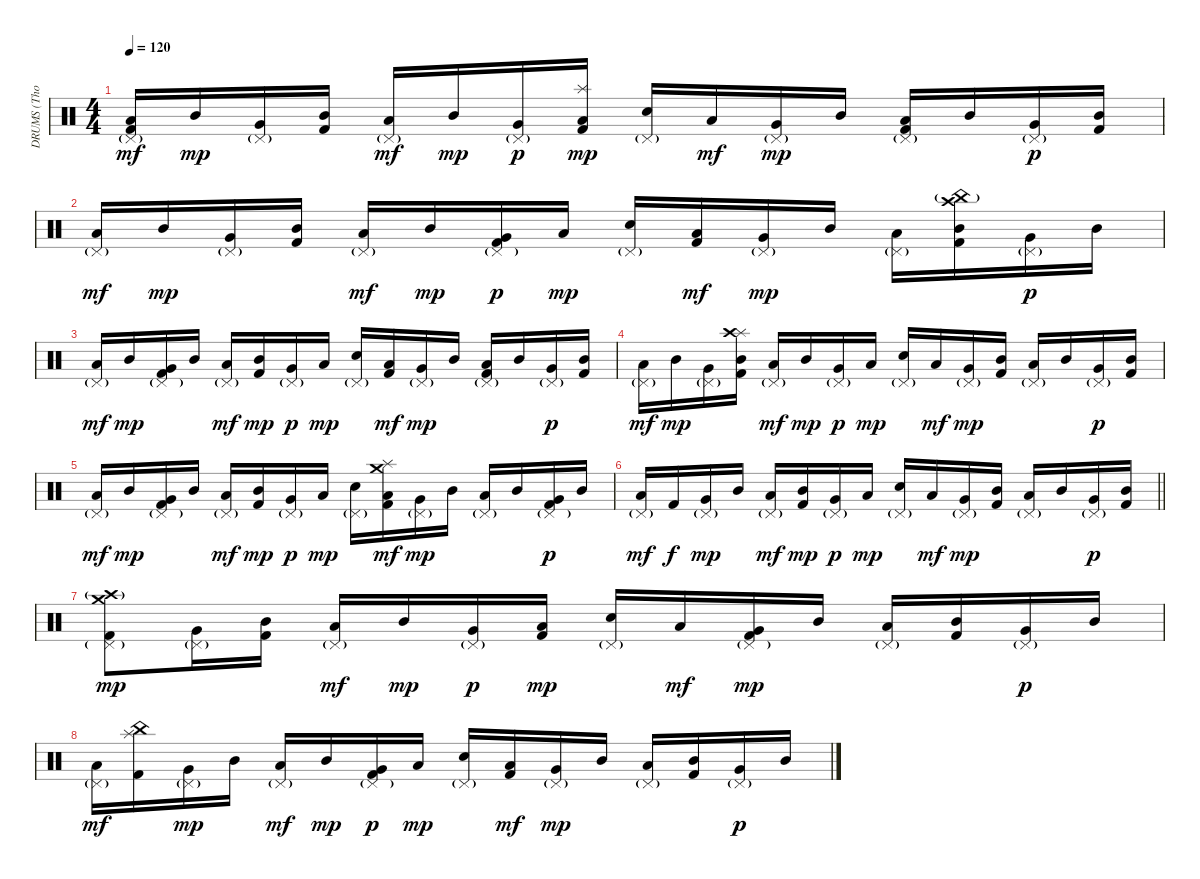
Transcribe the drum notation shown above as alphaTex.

\track ("DRUMS (Thomas Haake)" "DRUMS (Tho") {instrument percussion}
\staff {score}
\articulation defaults
\ts (4 4)
\tempo 120
\clef neutral
\ks c
("Pedal Hi-Hat (hit)"{g} "Low Floor Tom (hit)" "Kick (hit) 2").16{dy mf} "Mid Tom (hit)".16{dy mp} ("Pedal Hi-Hat (hit)"{g} "Very Low Tom (hit)").16 ("Mid Tom (hit)" "Kick (hit) 2").16 ("Pedal Hi-Hat (hit)"{g} "Low Floor Tom (hit)").16{dy mf} "Mid Tom (hit)".16{dy mp} ("Pedal Hi-Hat (hit)"{g} "Very Low Tom (hit)").16{dy p} ("Splash (hit)" "Low Tom (hit)" "Kick (hit) 2").16{dy mp} ("Pedal Hi-Hat (hit)"{g} "Electric Snare (hit)").16 "Low Tom (hit)".16{dy mf} ("Pedal Hi-Hat (hit)"{g} "Very Low Tom (hit)").16{dy mp} "Mid Tom (hit)".16 ("Pedal Hi-Hat (hit)"{g} "Low Floor Tom (hit)" "Kick (hit) 2").16 "Mid Tom (hit)".16 ("Pedal Hi-Hat (hit)"{g} "Very Low Tom (hit)").16{dy p} ("Mid Tom (hit)" "Kick (hit) 2").16 |
("Pedal Hi-Hat (hit)"{g} "Low Floor Tom (hit)").16{dy mf} "Mid Tom (hit)".16{dy mp} ("Pedal Hi-Hat (hit)"{g} "Very Low Tom (hit)").16 ("Mid Tom (hit)" "Kick (hit) 2").16 ("Pedal Hi-Hat (hit)"{g} "Low Floor Tom (hit)").16{dy mf} "Mid Tom (hit)".16{dy mp} ("Pedal Hi-Hat (hit)"{g} "Very Low Tom (hit)" "Kick (hit) 2").16{dy p} "Low Tom (hit)".16{dy mp} ("Pedal Hi-Hat (hit)"{g} "Electric Snare (hit)").16 ("Low Tom (hit)" "Kick (hit) 2").16{dy mf} ("Pedal Hi-Hat (hit)"{g} "Very Low Tom (hit)").16{dy mp} "Mid Tom (hit)".16 ("Pedal Hi-Hat (hit)"{g} "Low Floor Tom (hit)").16 ("China (hit)"{g} "Crash high (hit)" "Mid Tom (hit)" "Kick (hit) 2").16 ("Pedal Hi-Hat (hit)"{g} "Very Low Tom (hit)").16{dy p} "Mid Tom (hit)".16 |
("Pedal Hi-Hat (hit)"{g} "Low Floor Tom (hit)").16{dy mf} "Mid Tom (hit)".16{dy mp} ("Pedal Hi-Hat (hit)"{g} "Very Low Tom (hit)" "Kick (hit) 2").16 "Mid Tom (hit)".16 ("Pedal Hi-Hat (hit)"{g} "Low Floor Tom (hit)").16{dy mf} ("Mid Tom (hit)" "Kick (hit) 2").16{dy mp} ("Pedal Hi-Hat (hit)"{g} "Very Low Tom (hit)").16{dy p} "Low Tom (hit)".16{dy mp} ("Pedal Hi-Hat (hit)"{g} "Electric Snare (hit)").16 ("Low Tom (hit)" "Kick (hit) 2").16{dy mf} ("Pedal Hi-Hat (hit)"{g} "Very Low Tom (hit)").16{dy mp} "Mid Tom (hit)".16 ("Pedal Hi-Hat (hit)"{g} "Low Floor Tom (hit)" "Kick (hit) 2").16 "Mid Tom (hit)".16 ("Pedal Hi-Hat (hit)"{g} "Very Low Tom (hit)").16{dy p} ("Mid Tom (hit)" "Kick (hit) 2").16 |
("Pedal Hi-Hat (hit)"{g} "Low Floor Tom (hit)").16{dy mf} "Mid Tom (hit)".16{dy mp} ("Pedal Hi-Hat (hit)"{g} "Very Low Tom (hit)").16 ("Splash (hit)" "Crash high (hit)" "Mid Tom (hit)" "Kick (hit) 2").16 ("Pedal Hi-Hat (hit)"{g} "Low Floor Tom (hit)").16{dy mf} "Mid Tom (hit)".16{dy mp} ("Pedal Hi-Hat (hit)"{g} "Very Low Tom (hit)").16{dy p} "Low Tom (hit)".16{dy mp} ("Pedal Hi-Hat (hit)"{g} "Electric Snare (hit)").16 "Low Tom (hit)".16{dy mf} ("Pedal Hi-Hat (hit)"{g} "Very Low Tom (hit)").16{dy mp} ("Mid Tom (hit)" "Kick (hit) 2").16 ("Pedal Hi-Hat (hit)"{g} "Low Floor Tom (hit)").16 "Mid Tom (hit)".16 ("Pedal Hi-Hat (hit)"{g} "Very Low Tom (hit)").16{dy p} ("Mid Tom (hit)" "Kick (hit) 2").16 |
("Pedal Hi-Hat (hit)"{g} "Low Floor Tom (hit)").16{dy mf} "Mid Tom (hit)".16{dy mp} ("Pedal Hi-Hat (hit)"{g} "Very Low Tom (hit)" "Kick (hit) 2").16 "Mid Tom (hit)".16 ("Pedal Hi-Hat (hit)"{g} "Low Floor Tom (hit)").16{dy mf} ("Mid Tom (hit)" "Kick (hit) 2").16{dy mp} ("Pedal Hi-Hat (hit)"{g} "Very Low Tom (hit)").16{dy p} "Low Tom (hit)".16{dy mp} ("Pedal Hi-Hat (hit)"{g} "Electric Snare (hit)").16 ("Crash medium (hit)" "Splash (hit)" "Low Tom (hit)" "Kick (hit) 2").16{dy mf} ("Pedal Hi-Hat (hit)"{g} "Very Low Tom (hit)").16{dy mp} "Mid Tom (hit)".16 ("Pedal Hi-Hat (hit)"{g} "Low Floor Tom (hit)").16 "Mid Tom (hit)".16 ("Pedal Hi-Hat (hit)"{g} "Very Low Tom (hit)" "Kick (hit) 2").16{dy p} "Mid Tom (hit)".16 |
\barLineRight lightlight
("Pedal Hi-Hat (hit)"{g} "Low Floor Tom (hit)").16{dy mf} "Kick (hit) 2".16{dy f} ("Pedal Hi-Hat (hit)"{g} "Very Low Tom (hit)").16{dy mp} "Mid Tom (hit)".16 ("Pedal Hi-Hat (hit)"{g} "Low Floor Tom (hit)").16{dy mf} ("Mid Tom (hit)" "Kick (hit) 2").16{dy mp} ("Pedal Hi-Hat (hit)"{g} "Very Low Tom (hit)").16{dy p} "Low Tom (hit)".16{dy mp} ("Pedal Hi-Hat (hit)"{g} "Electric Snare (hit)").16 "Low Tom (hit)".16{dy mf} ("Pedal Hi-Hat (hit)"{g} "Very Low Tom (hit)").16{dy mp} ("Mid Tom (hit)" "Kick (hit) 2").16 ("Pedal Hi-Hat (hit)"{g} "Low Floor Tom (hit)").16 "Mid Tom (hit)".16 ("Pedal Hi-Hat (hit)"{g} "Very Low Tom (hit)").16{dy p} ("Mid Tom (hit)" "Kick (hit) 2").16 |
("Pedal Hi-Hat (hit)"{g} "Crash medium (hit)" "Crash high (hit)"{g} "Kick (hit) 2").8{dy mp} ("Pedal Hi-Hat (hit)"{g} "Very Low Tom (hit)").16 ("Mid Tom (hit)" "Kick (hit) 2").16 ("Pedal Hi-Hat (hit)"{g} "Low Floor Tom (hit)").16{dy mf} "Mid Tom (hit)".16{dy mp} ("Pedal Hi-Hat (hit)"{g} "Very Low Tom (hit)").16{dy p} ("Low Tom (hit)" "Kick (hit) 2").16{dy mp} ("Pedal Hi-Hat (hit)"{g} "Electric Snare (hit)").16 "Low Tom (hit)".16{dy mf} ("Pedal Hi-Hat (hit)"{g} "Very Low Tom (hit)" "Kick (hit) 2").16{dy mp} "Mid Tom (hit)".16 ("Pedal Hi-Hat (hit)"{g} "Low Floor Tom (hit)").16 ("Mid Tom (hit)" "Kick (hit) 2").16 ("Pedal Hi-Hat (hit)"{g} "Very Low Tom (hit)").16{dy p} "Mid Tom (hit)".16 |
("Pedal Hi-Hat (hit)"{g} "Low Floor Tom (hit)").16{dy mf} ("China (hit)" "Splash (hit)" "Kick (hit) 2").16 ("Pedal Hi-Hat (hit)"{g} "Very Low Tom (hit)").16{dy mp} "Mid Tom (hit)".16 ("Pedal Hi-Hat (hit)"{g} "Low Floor Tom (hit)").16{dy mf} "Mid Tom (hit)".16{dy mp} ("Pedal Hi-Hat (hit)"{g} "Very Low Tom (hit)" "Kick (hit) 2").16{dy p} "Low Tom (hit)".16{dy mp} ("Pedal Hi-Hat (hit)"{g} "Electric Snare (hit)").16 ("Low Tom (hit)" "Kick (hit) 2").16{dy mf} ("Pedal Hi-Hat (hit)"{g} "Very Low Tom (hit)").16{dy mp} "Mid Tom (hit)".16 ("Pedal Hi-Hat (hit)"{g} "Low Floor Tom (hit)").16 ("Mid Tom (hit)" "Kick (hit) 2").16 ("Pedal Hi-Hat (hit)"{g} "Very Low Tom (hit)").16{dy p} "Mid Tom (hit)".16
